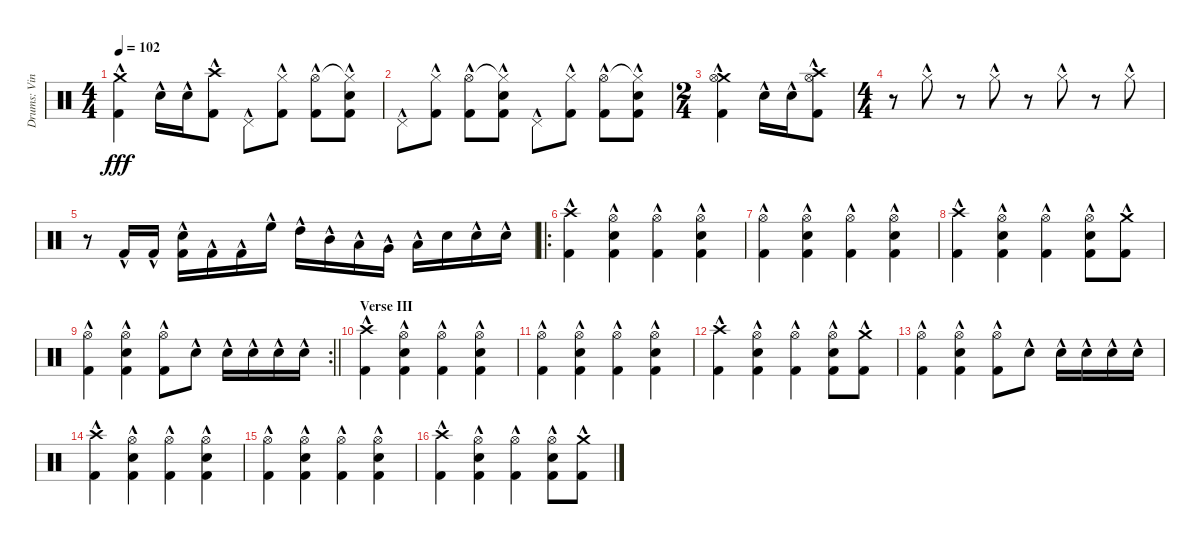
\track ("Drums: Vinny" "Drums: Vin") {instrument percussion}
\staff {score}
\articulation defaults
\ts (4 4)
\tempo 102
\clef neutral
\ks c
("Crash medium (hit)"{hac} "Kick (hit) 2"{hac}).4{dy fff} "Snare (hit) 2"{hac}.16 "Snare (hit) 2"{hac}.16 ("Crash high (hit)"{hac} "Kick (hit) 2"{hac}).8 "Pedal Hi-Hat (hit)"{hac}.8 ("Hi-Hat (closed)"{hac} "Kick (hit) 2"{hac}).8 ("Hi-Hat (open)"{hac} "Kick (hit) 2"{hac}).8 ("Hi-Hat (closed)"{t} "Snare (hit) 2"{hac} "Kick (hit) 2").8 |
"Pedal Hi-Hat (hit)"{hac}.8 ("Hi-Hat (closed)"{hac} "Kick (hit) 2"{hac}).8 ("Hi-Hat (open)"{hac} "Kick (hit) 2"{hac}).8 ("Hi-Hat (closed)"{t} "Snare (hit) 2"{hac} "Kick (hit) 2").8 "Pedal Hi-Hat (hit)"{hac}.8 ("Hi-Hat (closed)"{hac} "Kick (hit) 2"{hac}).8 ("Hi-Hat (open)"{hac} "Kick (hit) 2"{hac}).8 ("Hi-Hat (closed)"{t} "Snare (hit) 2"{hac} "Kick (hit) 2").8 |
\ts (2 4)
("Crash medium (hit)"{hac} "Hi-Hat (open)"{hac} "Kick (hit) 2"{hac}).4 "Snare (hit) 2"{hac}.16 "Snare (hit) 2"{hac}.16 ("Crash high (hit)"{hac} "Hi-Hat (open)"{hac} "Kick (hit) 2"{hac}).8 |
\ts (4 4)
r.8 "Hi-Hat (closed)"{hac}.8 r.8 "Hi-Hat (closed)"{hac}.8 r.8 "Hi-Hat (closed)"{hac}.8 r.8 "Hi-Hat (closed)"{hac}.8 |
r.8 "Kick (hit) 2"{hac}.16 "Kick (hit) 2"{hac}.16 ("Snare (hit) 2"{hac} "Kick (hit) 2"{hac}).16 "Kick (hit) 2"{hac}.16 "Kick (hit) 2"{hac}.16 "High Floor Tom (hit)"{hac}.16 "High Tom (hit)"{hac}.16 "Mid Tom (hit)"{hac}.16 "Low Tom (hit)"{hac}.16 "Very Low Tom (hit)"{hac}.16 "Low Floor Tom (hit)"{hac}.16 "Snare (hit) 2".16 "Snare (hit) 2"{hac}.16 "Snare (hit) 2"{hac}.16 |
\ro
("Crash high (hit)"{hac} "Kick (hit) 2"{hac}).4 ("Hi-Hat (open)"{hac} "Snare (hit) 2"{hac} "Kick (hit) 2"{hac}).4 ("Hi-Hat (open)"{hac} "Kick (hit) 2"{hac}).4 ("Hi-Hat (open)"{hac} "Snare (hit) 2"{hac} "Kick (hit) 2"{hac}).4 |
("Hi-Hat (open)"{hac} "Kick (hit) 2"{hac}).4 ("Hi-Hat (open)"{hac} "Snare (hit) 2"{hac} "Kick (hit) 2"{hac}).4 ("Hi-Hat (open)"{hac} "Kick (hit) 2"{hac}).4 ("Hi-Hat (open)"{hac} "Snare (hit) 2"{hac} "Kick (hit) 2"{hac}).4 |
("Crash high (hit)"{hac} "Kick (hit) 2"{hac}).4 ("Hi-Hat (open)"{hac} "Snare (hit) 2"{hac} "Kick (hit) 2"{hac}).4 ("Hi-Hat (open)"{hac} "Kick (hit) 2"{hac}).4 ("Hi-Hat (open)"{hac} "Snare (hit) 2"{hac} "Kick (hit) 2"{hac}).8 ("Crash medium (hit)"{hac} "Kick (hit) 2"{hac}).8 |
\rc 2
\barLineRight lightlight
("Hi-Hat (open)"{hac} "Kick (hit) 2"{hac}).4 ("Hi-Hat (open)"{hac} "Snare (hit) 2"{hac} "Kick (hit) 2"{hac}).4 ("Hi-Hat (open)"{hac} "Kick (hit) 2"{hac}).8 "Snare (hit) 2"{hac}.8 "Snare (hit) 2"{hac}.16 "Snare (hit) 2"{hac}.16 "Snare (hit) 2"{hac}.16 "Snare (hit) 2"{hac}.16 |
\section ("" "Verse III")
("Crash high (hit)"{hac} "Kick (hit) 2"{hac}).4 ("Hi-Hat (open)"{hac} "Snare (hit) 2"{hac} "Kick (hit) 2"{hac}).4 ("Hi-Hat (open)"{hac} "Kick (hit) 2"{hac}).4 ("Hi-Hat (open)"{hac} "Snare (hit) 2"{hac} "Kick (hit) 2"{hac}).4 |
("Hi-Hat (open)"{hac} "Kick (hit) 2"{hac}).4 ("Hi-Hat (open)"{hac} "Snare (hit) 2"{hac} "Kick (hit) 2"{hac}).4 ("Hi-Hat (open)"{hac} "Kick (hit) 2"{hac}).4 ("Hi-Hat (open)"{hac} "Snare (hit) 2"{hac} "Kick (hit) 2"{hac}).4 |
("Crash high (hit)"{hac} "Kick (hit) 2"{hac}).4 ("Hi-Hat (open)"{hac} "Snare (hit) 2"{hac} "Kick (hit) 2"{hac}).4 ("Hi-Hat (open)"{hac} "Kick (hit) 2"{hac}).4 ("Hi-Hat (open)"{hac} "Snare (hit) 2"{hac} "Kick (hit) 2"{hac}).8 ("Crash medium (hit)"{hac} "Kick (hit) 2"{hac}).8 |
("Hi-Hat (open)"{hac} "Kick (hit) 2"{hac}).4 ("Hi-Hat (open)"{hac} "Snare (hit) 2"{hac} "Kick (hit) 2"{hac}).4 ("Hi-Hat (open)"{hac} "Kick (hit) 2"{hac}).8 "Snare (hit) 2"{hac}.8 "Snare (hit) 2"{hac}.16 "Snare (hit) 2"{hac}.16 "Snare (hit) 2"{hac}.16 "Snare (hit) 2"{hac}.16 |
("Crash high (hit)"{hac} "Kick (hit) 2"{hac}).4 ("Hi-Hat (open)"{hac} "Snare (hit) 2"{hac} "Kick (hit) 2"{hac}).4 ("Hi-Hat (open)"{hac} "Kick (hit) 2"{hac}).4 ("Hi-Hat (open)"{hac} "Snare (hit) 2"{hac} "Kick (hit) 2"{hac}).4 |
("Hi-Hat (open)"{hac} "Kick (hit) 2"{hac}).4 ("Hi-Hat (open)"{hac} "Snare (hit) 2"{hac} "Kick (hit) 2"{hac}).4 ("Hi-Hat (open)"{hac} "Kick (hit) 2"{hac}).4 ("Hi-Hat (open)"{hac} "Snare (hit) 2"{hac} "Kick (hit) 2"{hac}).4 |
("Crash high (hit)"{hac} "Kick (hit) 2"{hac}).4 ("Hi-Hat (open)"{hac} "Snare (hit) 2"{hac} "Kick (hit) 2"{hac}).4 ("Hi-Hat (open)"{hac} "Kick (hit) 2"{hac}).4 ("Hi-Hat (open)"{hac} "Snare (hit) 2"{hac} "Kick (hit) 2"{hac}).8 ("Crash medium (hit)"{hac} "Kick (hit) 2"{hac}).8
